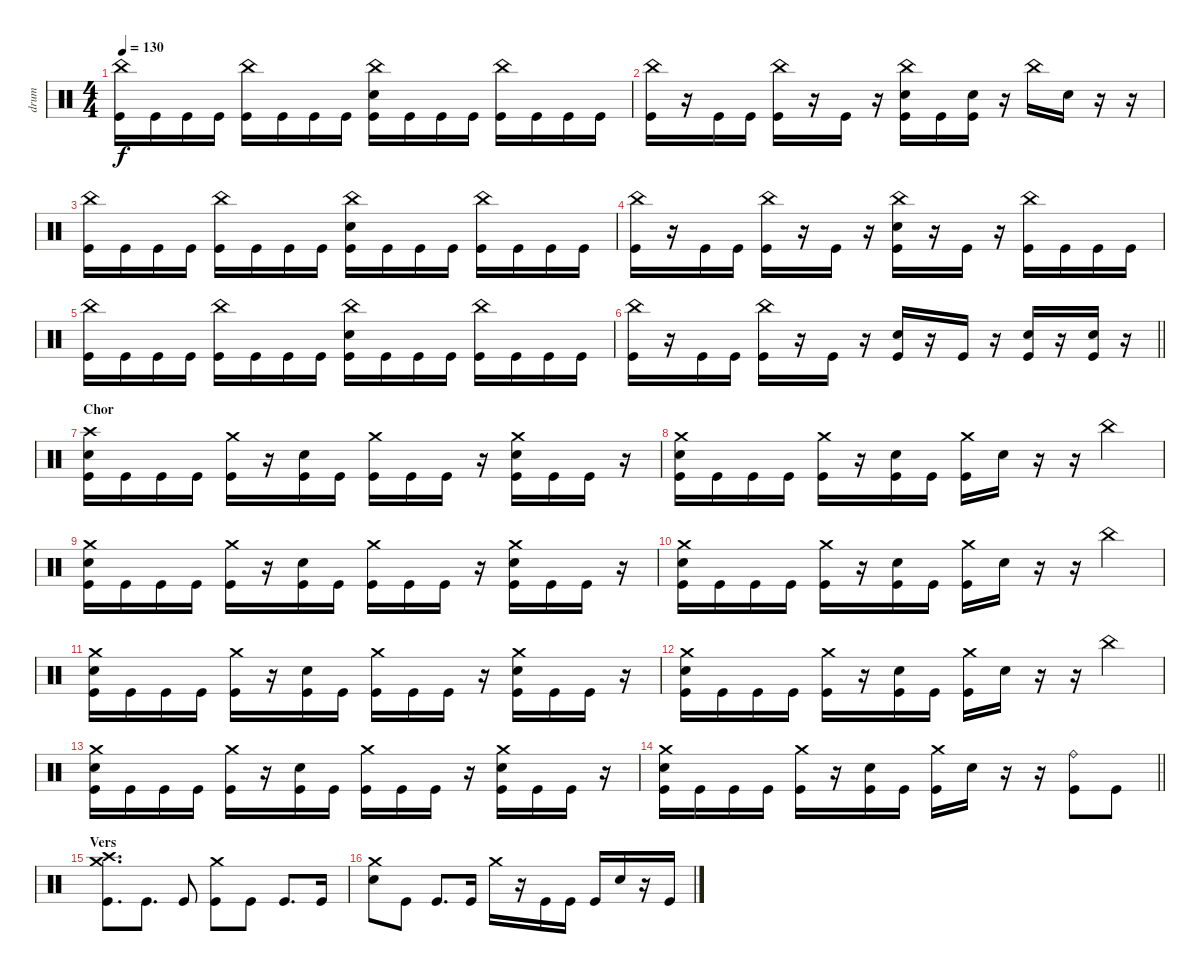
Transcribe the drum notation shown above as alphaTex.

\track ("drum" "drum") {instrument percussion}
\staff {score}
\articulation defaults
\ts (4 4)
\tempo 130
\clef neutral
\ks c
("China (hit)" "Kick (hit)").16{dy f} "Kick (hit)".16 "Kick (hit)".16 "Kick (hit)".16 ("China (hit)" "Kick (hit)").16 "Kick (hit)".16 "Kick (hit)".16 "Kick (hit)".16 ("China (hit)" "Snare (hit) 2" "Kick (hit)").16 "Kick (hit)".16 "Kick (hit)".16 "Kick (hit)".16 ("China (hit)" "Kick (hit)").16 "Kick (hit)".16 "Kick (hit)".16 "Kick (hit)".16 |
("China (hit)" "Kick (hit)").16 r.16 "Kick (hit)".16 "Kick (hit)".16 ("China (hit)" "Kick (hit)").16 r.16 "Kick (hit)".16 r.16 ("China (hit)" "Snare (hit) 2" "Kick (hit)").16 "Kick (hit)".16 ("Snare (hit) 2" "Kick (hit)").16 r.16 "China (hit)".16 "Snare (hit) 2".16 r.16 r.16 |
("China (hit)" "Kick (hit)").16 "Kick (hit)".16 "Kick (hit)".16 "Kick (hit)".16 ("China (hit)" "Kick (hit)").16 "Kick (hit)".16 "Kick (hit)".16 "Kick (hit)".16 ("China (hit)" "Snare (hit) 2" "Kick (hit)").16 "Kick (hit)".16 "Kick (hit)".16 "Kick (hit)".16 ("China (hit)" "Kick (hit)").16 "Kick (hit)".16 "Kick (hit)".16 "Kick (hit)".16 |
("China (hit)" "Kick (hit)").16 r.16 "Kick (hit)".16 "Kick (hit)".16 ("China (hit)" "Kick (hit)").16 r.16 "Kick (hit)".16 r.16 ("China (hit)" "Snare (hit) 2" "Kick (hit)").16 r.16 "Kick (hit)".16 r.16 ("China (hit)" "Kick (hit)").16 "Kick (hit)".16 "Kick (hit)".16 "Kick (hit)".16 |
("China (hit)" "Kick (hit)").16 "Kick (hit)".16 "Kick (hit)".16 "Kick (hit)".16 ("China (hit)" "Kick (hit)").16 "Kick (hit)".16 "Kick (hit)".16 "Kick (hit)".16 ("China (hit)" "Snare (hit) 2" "Kick (hit)").16 "Kick (hit)".16 "Kick (hit)".16 "Kick (hit)".16 ("China (hit)" "Kick (hit)").16 "Kick (hit)".16 "Kick (hit)".16 "Kick (hit)".16 |
\barLineRight lightlight
("China (hit)" "Kick (hit)").16 r.16 "Kick (hit)".16 "Kick (hit)".16 ("China (hit)" "Kick (hit)").16 r.16 "Kick (hit)".16 r.16 ("Snare (hit) 2" "Kick (hit)").16 r.16 "Kick (hit)".16 r.16 ("Snare (hit) 2" "Kick (hit)").16 r.16 ("Snare (hit) 2" "Kick (hit)").16 r.16 |
\section ("" "Chor")
("Crash high (hit)" "Snare (hit) 2" "Kick (hit)").16 "Kick (hit)".16 "Kick (hit)".16 "Kick (hit)".16 ("Crash medium (hit)" "Kick (hit)").16 r.16 ("Snare (hit) 2" "Kick (hit)").16 "Kick (hit)".16 ("Crash medium (hit)" "Kick (hit)").16 "Kick (hit)".16 "Kick (hit)".16 r.16 ("Crash medium (hit)" "Snare (hit) 2" "Kick (hit)").16 "Kick (hit)".16 "Kick (hit)".16 r.16 |
("Crash medium (hit)" "Snare (hit) 2" "Kick (hit)").16 "Kick (hit)".16 "Kick (hit)".16 "Kick (hit)".16 ("Crash medium (hit)" "Kick (hit)").16 r.16 ("Snare (hit) 2" "Kick (hit)").16 "Kick (hit)".16 ("Crash medium (hit)" "Kick (hit)").16 "Snare (hit) 2".16 r.16 r.16 "China (hit)".4 |
("Crash medium (hit)" "Snare (hit) 2" "Kick (hit)").16 "Kick (hit)".16 "Kick (hit)".16 "Kick (hit)".16 ("Crash medium (hit)" "Kick (hit)").16 r.16 ("Snare (hit) 2" "Kick (hit)").16 "Kick (hit)".16 ("Crash medium (hit)" "Kick (hit)").16 "Kick (hit)".16 "Kick (hit)".16 r.16 ("Crash medium (hit)" "Snare (hit) 2" "Kick (hit)").16 "Kick (hit)".16 "Kick (hit)".16 r.16 |
("Crash medium (hit)" "Snare (hit) 2" "Kick (hit)").16 "Kick (hit)".16 "Kick (hit)".16 "Kick (hit)".16 ("Crash medium (hit)" "Kick (hit)").16 r.16 ("Snare (hit) 2" "Kick (hit)").16 "Kick (hit)".16 ("Crash medium (hit)" "Kick (hit)").16 "Snare (hit) 2".16 r.16 r.16 "China (hit)".4 |
("Crash medium (hit)" "Snare (hit) 2" "Kick (hit)").16 "Kick (hit)".16 "Kick (hit)".16 "Kick (hit)".16 ("Crash medium (hit)" "Kick (hit)").16 r.16 ("Snare (hit) 2" "Kick (hit)").16 "Kick (hit)".16 ("Crash medium (hit)" "Kick (hit)").16 "Kick (hit)".16 "Kick (hit)".16 r.16 ("Crash medium (hit)" "Snare (hit) 2" "Kick (hit)").16 "Kick (hit)".16 "Kick (hit)".16 r.16 |
("Crash medium (hit)" "Snare (hit) 2" "Kick (hit)").16 "Kick (hit)".16 "Kick (hit)".16 "Kick (hit)".16 ("Crash medium (hit)" "Kick (hit)").16 r.16 ("Snare (hit) 2" "Kick (hit)").16 "Kick (hit)".16 ("Crash medium (hit)" "Kick (hit)").16 "Snare (hit) 2".16 r.16 r.16 "China (hit)".4 |
("Crash medium (hit)" "Snare (hit) 2" "Kick (hit)").16 "Kick (hit)".16 "Kick (hit)".16 "Kick (hit)".16 ("Crash medium (hit)" "Kick (hit)").16 r.16 ("Snare (hit) 2" "Kick (hit)").16 "Kick (hit)".16 ("Crash medium (hit)" "Kick (hit)").16 "Kick (hit)".16 "Kick (hit)".16 r.16 ("Crash medium (hit)" "Snare (hit) 2" "Kick (hit)").16 "Kick (hit)".16 "Kick (hit)".16 r.16 |
\barLineRight lightlight
("Crash medium (hit)" "Snare (hit) 2" "Kick (hit)").16 "Kick (hit)".16 "Kick (hit)".16 "Kick (hit)".16 ("Crash medium (hit)" "Kick (hit)").16 r.16 ("Snare (hit) 2" "Kick (hit)").16 "Kick (hit)".16 ("Crash medium (hit)" "Kick (hit)").16 "Snare (hit) 2".16 r.16 r.16 ("Ride (bell)" "Kick (hit)").8 "Kick (hit)".8 |
\section ("" "Vers")
("Crash high (hit)" "Crash medium (hit)" "Kick (hit)").8{d} "Kick (hit)".8{d} "Kick (hit)".8 ("Crash medium (hit)" "Kick (hit)").8 "Kick (hit)".8 "Kick (hit)".8{d} "Kick (hit)".16 |
("Crash medium (hit)" "Snare (hit) 2").8 "Kick (hit)".8 "Kick (hit)".8{d} "Kick (hit)".16 "Crash medium (hit)".16 r.16 "Kick (hit)".16 "Kick (hit)".16 "Kick (hit)".16 "Snare (hit) 2".16 r.16 "Kick (hit)".16
